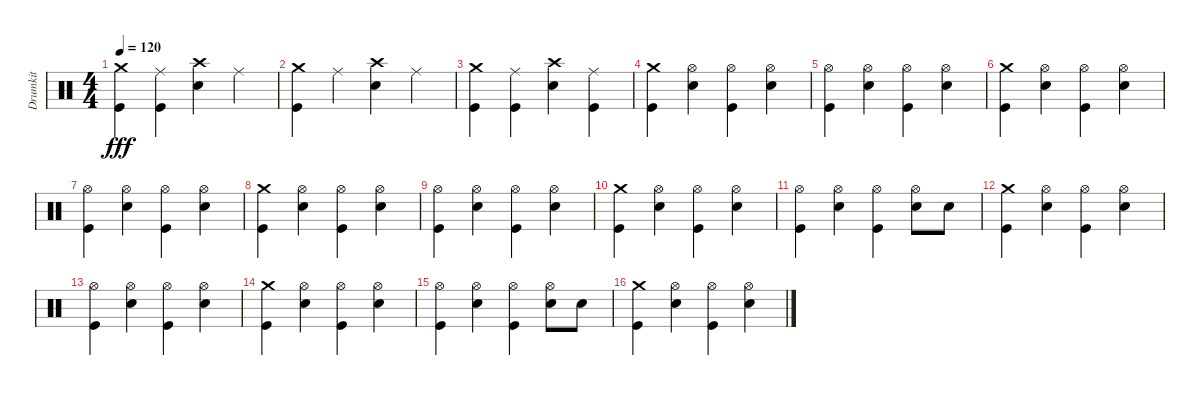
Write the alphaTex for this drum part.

\track ("Drumkit" "Drumkit") {instrument percussion}
\staff {score}
\articulation defaults
\ts (4 4)
\tempo 120
\clef neutral
\ks c
("Kick (hit)" "Crash medium (hit)").4{dy fff} ("Ride (middle)" "Kick (hit)").4 ("Snare (hit) 2" "Crash high (hit)").4 "Ride (middle)".4 |
("Kick (hit)" "Crash medium (hit)").4 "Ride (middle)".4 ("Snare (hit) 2" "Crash high (hit)").4 "Ride (middle)".4 |
("Kick (hit)" "Crash medium (hit)").4 ("Ride (middle)" "Kick (hit)").4 ("Snare (hit) 2" "Crash high (hit)").4 ("Ride (middle)" "Kick (hit)").4 |
("Kick (hit)" "Crash medium (hit)").4 ("Hi-Hat (open)" "Snare (hit) 2").4 ("Hi-Hat (open)" "Kick (hit)").4 ("Hi-Hat (open)" "Snare (hit) 2").4 |
("Kick (hit)" "Hi-Hat (open)").4 ("Hi-Hat (open)" "Snare (hit) 2").4 ("Hi-Hat (open)" "Kick (hit)").4 ("Hi-Hat (open)" "Snare (hit) 2").4 |
("Kick (hit)" "Crash medium (hit)").4 ("Hi-Hat (open)" "Snare (hit) 2").4 ("Hi-Hat (open)" "Kick (hit)").4 ("Hi-Hat (open)" "Snare (hit) 2").4 |
("Kick (hit)" "Hi-Hat (open)").4 ("Hi-Hat (open)" "Snare (hit) 2").4 ("Hi-Hat (open)" "Kick (hit)").4 ("Hi-Hat (open)" "Snare (hit) 2").4 |
("Kick (hit)" "Crash medium (hit)").4 ("Hi-Hat (open)" "Snare (hit) 2").4 ("Hi-Hat (open)" "Kick (hit)").4 ("Hi-Hat (open)" "Snare (hit) 2").4 |
("Kick (hit)" "Hi-Hat (open)").4 ("Hi-Hat (open)" "Snare (hit) 2").4 ("Hi-Hat (open)" "Kick (hit)").4 ("Hi-Hat (open)" "Snare (hit) 2").4 |
("Kick (hit)" "Crash medium (hit)").4 ("Hi-Hat (open)" "Snare (hit) 2").4 ("Hi-Hat (open)" "Kick (hit)").4 ("Hi-Hat (open)" "Snare (hit) 2").4 |
("Kick (hit)" "Hi-Hat (open)").4 ("Hi-Hat (open)" "Snare (hit) 2").4 ("Hi-Hat (open)" "Kick (hit)").4 ("Hi-Hat (open)" "Snare (hit) 2").8 "Snare (hit) 2".8 |
("Kick (hit)" "Crash medium (hit)").4 ("Hi-Hat (open)" "Snare (hit) 2").4 ("Hi-Hat (open)" "Kick (hit)").4 ("Hi-Hat (open)" "Snare (hit) 2").4 |
("Kick (hit)" "Hi-Hat (open)").4 ("Hi-Hat (open)" "Snare (hit) 2").4 ("Hi-Hat (open)" "Kick (hit)").4 ("Hi-Hat (open)" "Snare (hit) 2").4 |
("Kick (hit)" "Crash medium (hit)").4 ("Hi-Hat (open)" "Snare (hit) 2").4 ("Hi-Hat (open)" "Kick (hit)").4 ("Hi-Hat (open)" "Snare (hit) 2").4 |
("Kick (hit)" "Hi-Hat (open)").4 ("Hi-Hat (open)" "Snare (hit) 2").4 ("Hi-Hat (open)" "Kick (hit)").4 ("Hi-Hat (open)" "Snare (hit) 2").8 "Snare (hit) 2".8 |
("Kick (hit)" "Crash medium (hit)").4 ("Hi-Hat (open)" "Snare (hit) 2").4 ("Hi-Hat (open)" "Kick (hit)").4 ("Hi-Hat (open)" "Snare (hit) 2").4
